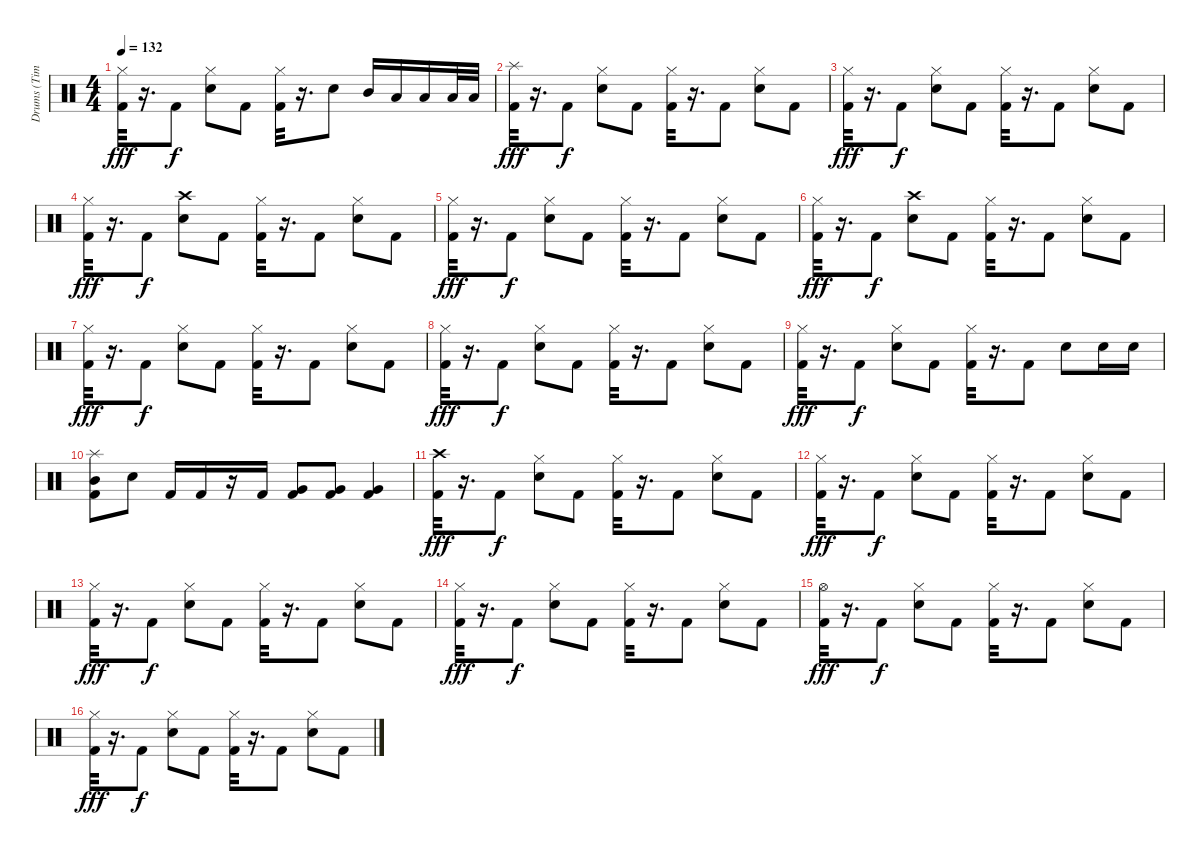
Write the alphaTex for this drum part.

\track ("Drums (Tim Alexander)" "Drums (Tim") {instrument percussion}
\staff {score}
\articulation defaults
\ts (4 4)
\tempo 132
\clef neutral
\ks c
("Hi-Hat (closed)" "Kick (hit) 2").32{dy fff} r.16{d} "Kick (hit) 2".8{dy f} ("Hi-Hat (closed)" "Snare (hit) 2").8 "Kick (hit) 2".8 ("Hi-Hat (closed)" "Kick (hit) 2").32 r.16{d} "Snare (hit) 2".8 "Mid Tom (hit)".16 "Low Tom (hit)".16 "Low Tom (hit)".16 "Low Tom (hit)".32 "Low Tom (hit)".32 |
("Splash (hit)" "Kick (hit) 2").32{dy fff} r.16{d} "Kick (hit) 2".8{dy f} ("Hi-Hat (closed)" "Snare (hit) 2").8 "Kick (hit) 2".8 ("Hi-Hat (closed)" "Kick (hit) 2").32 r.16{d} "Kick (hit) 2".8 ("Hi-Hat (closed)" "Snare (hit) 2").8 "Kick (hit) 2".8 |
("Hi-Hat (closed)" "Kick (hit) 2").32{dy fff} r.16{d} "Kick (hit) 2".8{dy f} ("Hi-Hat (closed)" "Snare (hit) 2").8 "Kick (hit) 2".8 ("Hi-Hat (closed)" "Kick (hit) 2").32 r.16{d} "Kick (hit) 2".8 ("Hi-Hat (closed)" "Snare (hit) 2").8 "Kick (hit) 2".8 |
("Hi-Hat (closed)" "Kick (hit) 2").32{dy fff} r.16{d} "Kick (hit) 2".8{dy f} ("Crash high (hit)" "Snare (hit) 2").8 "Kick (hit) 2".8 ("Hi-Hat (closed)" "Kick (hit) 2").32 r.16{d} "Kick (hit) 2".8 ("Hi-Hat (closed)" "Snare (hit) 2").8 "Kick (hit) 2".8 |
("Hi-Hat (closed)" "Kick (hit) 2").32{dy fff} r.16{d} "Kick (hit) 2".8{dy f} ("Hi-Hat (closed)" "Snare (hit) 2").8 "Kick (hit) 2".8 ("Hi-Hat (closed)" "Kick (hit) 2").32 r.16{d} "Kick (hit) 2".8 ("Hi-Hat (closed)" "Snare (hit) 2").8 "Kick (hit) 2".8 |
("Hi-Hat (closed)" "Kick (hit) 2").32{dy fff} r.16{d} "Kick (hit) 2".8{dy f} ("Crash high (hit)" "Snare (hit) 2").8 "Kick (hit) 2".8 ("Hi-Hat (closed)" "Kick (hit) 2").32 r.16{d} "Kick (hit) 2".8 ("Hi-Hat (closed)" "Snare (hit) 2").8 "Kick (hit) 2".8 |
("Hi-Hat (closed)" "Kick (hit) 2").32{dy fff} r.16{d} "Kick (hit) 2".8{dy f} ("Hi-Hat (closed)" "Snare (hit) 2").8 "Kick (hit) 2".8 ("Hi-Hat (closed)" "Kick (hit) 2").32 r.16{d} "Kick (hit) 2".8 ("Hi-Hat (closed)" "Snare (hit) 2").8 "Kick (hit) 2".8 |
("Hi-Hat (closed)" "Kick (hit) 2").32{dy fff} r.16{d} "Kick (hit) 2".8{dy f} ("Hi-Hat (closed)" "Snare (hit) 2").8 "Kick (hit) 2".8 ("Hi-Hat (closed)" "Kick (hit) 2").32 r.16{d} "Kick (hit) 2".8 ("Hi-Hat (closed)" "Snare (hit) 2").8 "Kick (hit) 2".8 |
("Hi-Hat (closed)" "Kick (hit) 2").32{dy fff} r.16{d} "Kick (hit) 2".8{dy f} ("Hi-Hat (closed)" "Snare (hit) 2").8 "Kick (hit) 2".8 ("Hi-Hat (closed)" "Kick (hit) 2").32 r.16{d} "Kick (hit) 2".8 "Snare (hit) 2".8 "Snare (hit) 2".16 "Snare (hit) 2".16 |
("Splash (hit)" "Mid Tom (hit)" "Kick (hit) 2").8 "Snare (hit) 2".8 "Kick (hit) 2".16 "Kick (hit) 2".16 r.16 "Kick (hit) 2".16 ("Very Low Tom (hit)" "Kick (hit) 2").8 ("Very Low Tom (hit)" "Kick (hit) 2").8 ("Very Low Tom (hit)" "Kick (hit) 2").4 |
("Crash high (hit)" "Kick (hit) 2").32{dy fff} r.16{d} "Kick (hit) 2".8{dy f} ("Hi-Hat (closed)" "Snare (hit) 2").8 "Kick (hit) 2".8 ("Hi-Hat (closed)" "Kick (hit) 2").32 r.16{d} "Kick (hit) 2".8 ("Hi-Hat (closed)" "Snare (hit) 2").8 "Kick (hit) 2".8 |
("Hi-Hat (closed)" "Kick (hit) 2").32{dy fff} r.16{d} "Kick (hit) 2".8{dy f} ("Hi-Hat (closed)" "Snare (hit) 2").8 "Kick (hit) 2".8 ("Hi-Hat (closed)" "Kick (hit) 2").32 r.16{d} "Kick (hit) 2".8 ("Hi-Hat (closed)" "Snare (hit) 2").8 "Kick (hit) 2".8 |
("Hi-Hat (closed)" "Kick (hit) 2").32{dy fff} r.16{d} "Kick (hit) 2".8{dy f} ("Hi-Hat (closed)" "Snare (hit) 2").8 "Kick (hit) 2".8 ("Hi-Hat (closed)" "Kick (hit) 2").32 r.16{d} "Kick (hit) 2".8 ("Hi-Hat (closed)" "Snare (hit) 2").8 "Kick (hit) 2".8 |
("Hi-Hat (closed)" "Kick (hit) 2").32{dy fff} r.16{d} "Kick (hit) 2".8{dy f} ("Hi-Hat (closed)" "Snare (hit) 2").8 "Kick (hit) 2".8 ("Hi-Hat (closed)" "Kick (hit) 2").32 r.16{d} "Kick (hit) 2".8 ("Hi-Hat (closed)" "Snare (hit) 2").8 "Kick (hit) 2".8 |
("Hi-Hat (open)" "Kick (hit) 2").32{dy fff} r.16{d} "Kick (hit) 2".8{dy f} ("Hi-Hat (closed)" "Snare (hit) 2").8 "Kick (hit) 2".8 ("Hi-Hat (closed)" "Kick (hit) 2").32 r.16{d} "Kick (hit) 2".8 ("Hi-Hat (closed)" "Snare (hit) 2").8 "Kick (hit) 2".8 |
("Hi-Hat (closed)" "Kick (hit) 2").32{dy fff} r.16{d} "Kick (hit) 2".8{dy f} ("Hi-Hat (closed)" "Snare (hit) 2").8 "Kick (hit) 2".8 ("Hi-Hat (closed)" "Kick (hit) 2").32 r.16{d} "Kick (hit) 2".8 ("Hi-Hat (closed)" "Snare (hit) 2").8 "Kick (hit) 2".8
